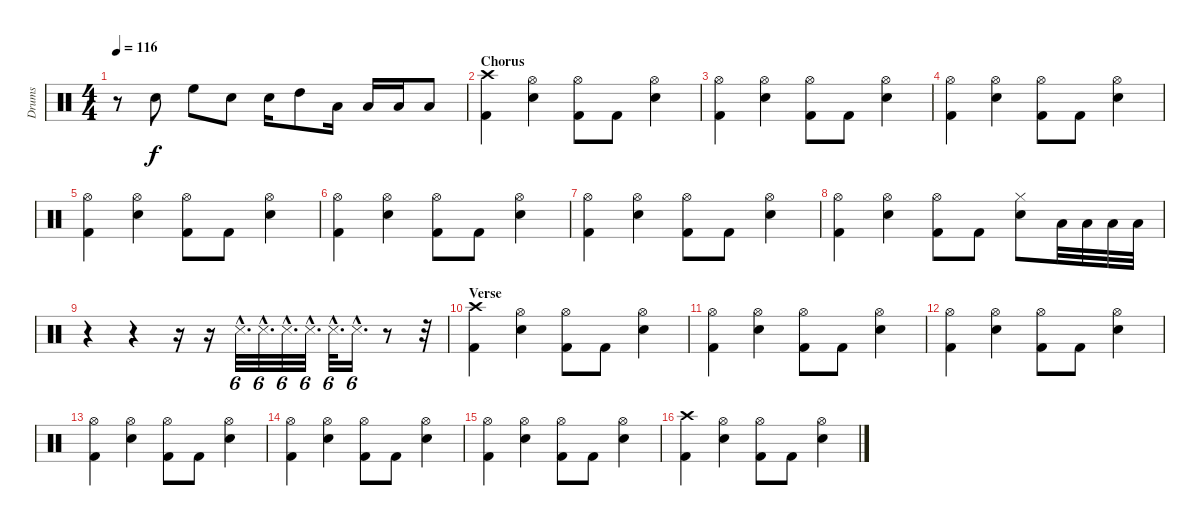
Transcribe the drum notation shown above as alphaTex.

\track ("Drums" "Drums") {instrument percussion}
\staff {score}
\articulation defaults
\ts (4 4)
\tempo 116
\clef neutral
\ks c
r.8{dy f} "Electric Snare (hit)".8 "High Floor Tom (hit)".8 "Electric Snare (hit)".8 "Electric Snare (hit)".16 "High Tom (hit)".8 "Low Tom (hit)".16 "Low Tom (hit)".16 "Low Floor Tom (hit)".16 "Low Floor Tom (hit)".8 |
\section ("" "Chorus")
("Crash high (hit)" "Kick (hit) 2").4 ("Hi-Hat (open)" "Electric Snare (hit)").4 ("Hi-Hat (open)" "Kick (hit) 2").8 "Kick (hit) 2".8 ("Hi-Hat (open)" "Electric Snare (hit)").4 |
("Hi-Hat (open)" "Kick (hit) 2").4 ("Hi-Hat (open)" "Electric Snare (hit)").4 ("Hi-Hat (open)" "Kick (hit) 2").8 "Kick (hit) 2".8 ("Hi-Hat (open)" "Electric Snare (hit)").4 |
("Hi-Hat (open)" "Kick (hit) 2").4 ("Hi-Hat (open)" "Electric Snare (hit)").4 ("Hi-Hat (open)" "Kick (hit) 2").8 "Kick (hit) 2".8 ("Hi-Hat (open)" "Electric Snare (hit)").4 |
("Hi-Hat (open)" "Kick (hit) 2").4 ("Hi-Hat (open)" "Electric Snare (hit)").4 ("Hi-Hat (open)" "Kick (hit) 2").8 "Kick (hit) 2".8 ("Hi-Hat (open)" "Electric Snare (hit)").4 |
("Hi-Hat (open)" "Kick (hit) 2").4 ("Hi-Hat (open)" "Electric Snare (hit)").4 ("Hi-Hat (open)" "Kick (hit) 2").8 "Kick (hit) 2".8 ("Hi-Hat (open)" "Electric Snare (hit)").4 |
("Hi-Hat (open)" "Kick (hit) 2").4 ("Hi-Hat (open)" "Electric Snare (hit)").4 ("Hi-Hat (open)" "Kick (hit) 2").8 "Kick (hit) 2".8 ("Hi-Hat (open)" "Electric Snare (hit)").4 |
("Hi-Hat (open)" "Kick (hit) 2").4 ("Hi-Hat (open)" "Electric Snare (hit)").4 ("Hi-Hat (open)" "Kick (hit) 2").8 "Kick (hit) 2".8 ("Hi-Hat (closed)" "Electric Snare (hit)").8 "Low Tom (hit)".32 "Low Tom (hit)".32 "Low Tom (hit)".32 "Low Floor Tom (hit)".32 |
r.4 r.4 r.16 r.16 "Metronome (hit)"{hac}.32{d tu (6 4)} "Metronome (hit)"{hac}.32{d tu (6 4)} "Metronome (hit)"{hac}.32{d tu (6 4)} "Metronome (hit)"{hac}.32{d tu (6 4)} "Metronome (hit)"{hac}.32{d tu (6 4)} "Metronome (hit)"{hac}.16{d tu (6 4)} r.8 r.32 |
\section ("" "Verse")
("Crash high (hit)" "Kick (hit) 2").4 ("Hi-Hat (open)" "Electric Snare (hit)").4 ("Hi-Hat (open)" "Kick (hit) 2").8 "Kick (hit) 2".8 ("Hi-Hat (open)" "Electric Snare (hit)").4 |
("Hi-Hat (open)" "Kick (hit) 2").4 ("Hi-Hat (open)" "Electric Snare (hit)").4 ("Hi-Hat (open)" "Kick (hit) 2").8 "Kick (hit) 2".8 ("Hi-Hat (open)" "Electric Snare (hit)").4 |
("Hi-Hat (open)" "Kick (hit) 2").4 ("Hi-Hat (open)" "Electric Snare (hit)").4 ("Hi-Hat (open)" "Kick (hit) 2").8 "Kick (hit) 2".8 ("Hi-Hat (open)" "Electric Snare (hit)").4 |
("Hi-Hat (open)" "Kick (hit) 2").4 ("Hi-Hat (open)" "Electric Snare (hit)").4 ("Hi-Hat (open)" "Kick (hit) 2").8 "Kick (hit) 2".8 ("Hi-Hat (open)" "Electric Snare (hit)").4 |
("Hi-Hat (open)" "Kick (hit) 2").4 ("Hi-Hat (open)" "Electric Snare (hit)").4 ("Hi-Hat (open)" "Kick (hit) 2").8 "Kick (hit) 2".8 ("Hi-Hat (open)" "Electric Snare (hit)").4 |
("Hi-Hat (open)" "Kick (hit) 2").4 ("Hi-Hat (open)" "Electric Snare (hit)").4 ("Hi-Hat (open)" "Kick (hit) 2").8 "Kick (hit) 2".8 ("Hi-Hat (open)" "Electric Snare (hit)").4 |
("Crash high (hit)" "Kick (hit) 2").4 ("Hi-Hat (open)" "Electric Snare (hit)").4 ("Hi-Hat (open)" "Kick (hit) 2").8 "Kick (hit) 2".8 ("Hi-Hat (open)" "Electric Snare (hit)").4
